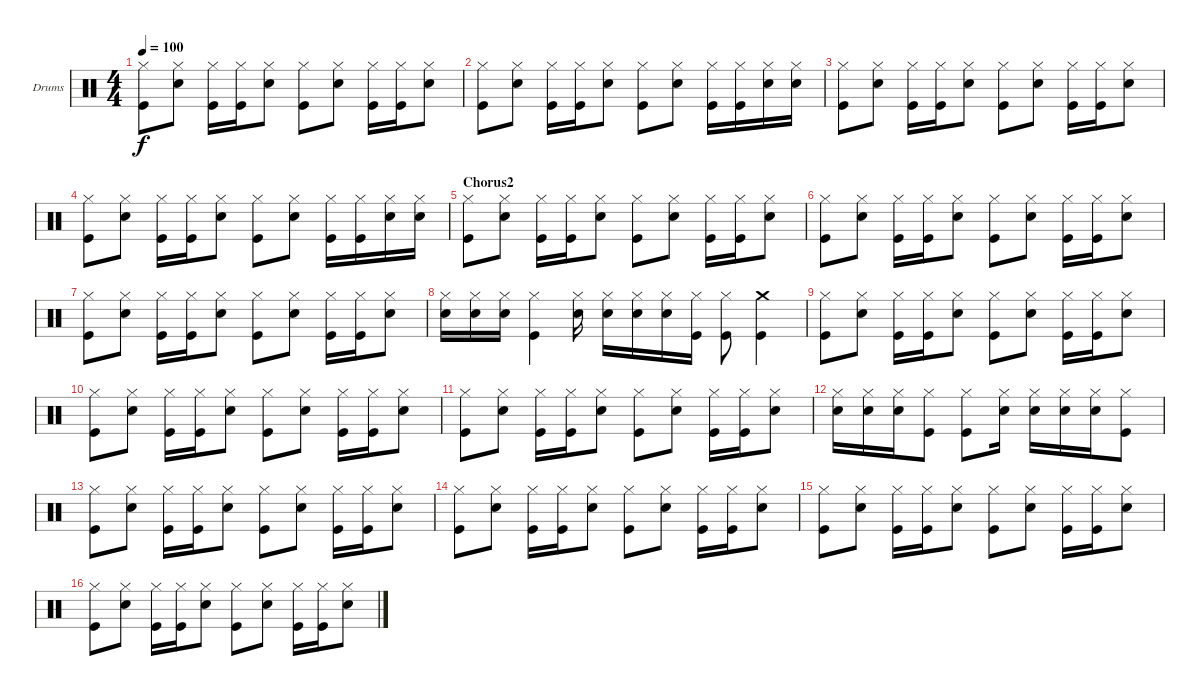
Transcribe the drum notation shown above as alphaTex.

\defaultSystemsLayout 4
\bracketExtendMode groupsimilarinstruments
\firstSystemTrackNameOrientation horizontal
\otherSystemsTrackNameOrientation horizontal
\track ("Drumkit" "Drums") {instrument percussion}
\staff {score}
\articulation defaults
\ts (4 4)
\tempo 100
\clef neutral
\scale
0.333333
\ks c
("Hi-Hat (closed)" "Kick (hit)").8{dy f} ("Hi-Hat (closed)" "Snare (hit) 2").8 ("Hi-Hat (closed)" "Kick (hit)").16 ("Hi-Hat (closed)" "Kick (hit)").16 ("Hi-Hat (closed)" "Snare (hit) 2").8 ("Hi-Hat (closed)" "Kick (hit)").8 ("Hi-Hat (closed)" "Snare (hit) 2").8 ("Hi-Hat (closed)" "Kick (hit)").16 ("Hi-Hat (closed)" "Kick (hit)").16 ("Hi-Hat (closed)" "Snare (hit) 2").8 |
\scale
0.333333 ("Hi-Hat (closed)" "Kick (hit)").8 ("Hi-Hat (closed)" "Snare (hit) 2").8 ("Hi-Hat (closed)" "Kick (hit)").16 ("Hi-Hat (closed)" "Kick (hit)").16 ("Hi-Hat (closed)" "Snare (hit) 2").8 ("Hi-Hat (closed)" "Kick (hit)").8 ("Hi-Hat (closed)" "Snare (hit) 2").8 ("Hi-Hat (closed)" "Kick (hit)").16 ("Hi-Hat (closed)" "Kick (hit)").16 ("Hi-Hat (closed)" "Snare (hit) 2").16 ("Hi-Hat (closed)" "Snare (hit) 2").16 |
\scale
0.333333 ("Hi-Hat (closed)" "Kick (hit)").8 ("Hi-Hat (closed)" "Snare (hit) 2").8 ("Hi-Hat (closed)" "Kick (hit)").16 ("Hi-Hat (closed)" "Kick (hit)").16 ("Hi-Hat (closed)" "Snare (hit) 2").8 ("Hi-Hat (closed)" "Kick (hit)").8 ("Hi-Hat (closed)" "Snare (hit) 2").8 ("Hi-Hat (closed)" "Kick (hit)").16 ("Hi-Hat (closed)" "Kick (hit)").16 ("Hi-Hat (closed)" "Snare (hit) 2").8 |
\scale
0.333333 ("Hi-Hat (closed)" "Kick (hit)").8 ("Hi-Hat (closed)" "Snare (hit) 2").8 ("Hi-Hat (closed)" "Kick (hit)").16 ("Hi-Hat (closed)" "Kick (hit)").16 ("Hi-Hat (closed)" "Snare (hit) 2").8 ("Hi-Hat (closed)" "Kick (hit)").8 ("Hi-Hat (closed)" "Snare (hit) 2").8 ("Hi-Hat (closed)" "Kick (hit)").16 ("Hi-Hat (closed)" "Kick (hit)").16 ("Hi-Hat (closed)" "Snare (hit) 2").16 ("Hi-Hat (closed)" "Snare (hit) 2").16 |
\section ("" "Chorus2")
\scale
0.333333 ("Hi-Hat (closed)" "Kick (hit)").8 ("Hi-Hat (closed)" "Snare (hit) 2").8 ("Hi-Hat (closed)" "Kick (hit)").16 ("Hi-Hat (closed)" "Kick (hit)").16 ("Hi-Hat (closed)" "Snare (hit) 2").8 ("Hi-Hat (closed)" "Kick (hit)").8 ("Hi-Hat (closed)" "Snare (hit) 2").8 ("Hi-Hat (closed)" "Kick (hit)").16 ("Hi-Hat (closed)" "Kick (hit)").16 ("Hi-Hat (closed)" "Snare (hit) 2").8 |
\scale
0.333333 ("Hi-Hat (closed)" "Kick (hit)").8 ("Hi-Hat (closed)" "Snare (hit) 2").8 ("Hi-Hat (closed)" "Kick (hit)").16 ("Hi-Hat (closed)" "Kick (hit)").16 ("Hi-Hat (closed)" "Snare (hit) 2").8 ("Hi-Hat (closed)" "Kick (hit)").8 ("Hi-Hat (closed)" "Snare (hit) 2").8 ("Hi-Hat (closed)" "Kick (hit)").16 ("Hi-Hat (closed)" "Kick (hit)").16 ("Hi-Hat (closed)" "Snare (hit) 2").8 |
\scale
0.333333 ("Hi-Hat (closed)" "Kick (hit)").8 ("Hi-Hat (closed)" "Snare (hit) 2").8 ("Hi-Hat (closed)" "Kick (hit)").16 ("Hi-Hat (closed)" "Kick (hit)").16 ("Hi-Hat (closed)" "Snare (hit) 2").8 ("Hi-Hat (closed)" "Kick (hit)").8 ("Hi-Hat (closed)" "Snare (hit) 2").8 ("Hi-Hat (closed)" "Kick (hit)").16 ("Hi-Hat (closed)" "Kick (hit)").16 ("Hi-Hat (closed)" "Snare (hit) 2").8 |
\scale
0.333333 ("Hi-Hat (closed)" "Snare (hit) 2").16 ("Hi-Hat (closed)" "Snare (hit) 2").16 ("Hi-Hat (closed)" "Snare (hit) 2").16 ("Hi-Hat (closed)" "Kick (hit)").4 ("Hi-Hat (closed)" "Snare (hit) 2").16 ("Hi-Hat (closed)" "Snare (hit) 2").16 ("Hi-Hat (closed)" "Snare (hit) 2").16 ("Hi-Hat (closed)" "Snare (hit) 2").16 ("Hi-Hat (closed)" "Kick (hit)").16 ("Hi-Hat (closed)" "Kick (hit)").8 ("Crash medium (hit)" "Kick (hit)").4 |
\scale
0.333333 ("Hi-Hat (closed)" "Kick (hit)").8 ("Hi-Hat (closed)" "Snare (hit) 2").8 ("Hi-Hat (closed)" "Kick (hit)").16 ("Hi-Hat (closed)" "Kick (hit)").16 ("Hi-Hat (closed)" "Snare (hit) 2").8 ("Hi-Hat (closed)" "Kick (hit)").8 ("Hi-Hat (closed)" "Snare (hit) 2").8 ("Hi-Hat (closed)" "Kick (hit)").16 ("Hi-Hat (closed)" "Kick (hit)").16 ("Hi-Hat (closed)" "Snare (hit) 2").8 |
\scale
0.333333 ("Hi-Hat (closed)" "Kick (hit)").8 ("Hi-Hat (closed)" "Snare (hit) 2").8 ("Hi-Hat (closed)" "Kick (hit)").16 ("Hi-Hat (closed)" "Kick (hit)").16 ("Hi-Hat (closed)" "Snare (hit) 2").8 ("Hi-Hat (closed)" "Kick (hit)").8 ("Hi-Hat (closed)" "Snare (hit) 2").8 ("Hi-Hat (closed)" "Kick (hit)").16 ("Hi-Hat (closed)" "Kick (hit)").16 ("Hi-Hat (closed)" "Snare (hit) 2").8 |
\scale
0.333333 ("Hi-Hat (closed)" "Kick (hit)").8 ("Hi-Hat (closed)" "Snare (hit) 2").8 ("Hi-Hat (closed)" "Kick (hit)").16 ("Hi-Hat (closed)" "Kick (hit)").16 ("Hi-Hat (closed)" "Snare (hit) 2").8 ("Hi-Hat (closed)" "Kick (hit)").8 ("Hi-Hat (closed)" "Snare (hit) 2").8 ("Hi-Hat (closed)" "Kick (hit)").16 ("Hi-Hat (closed)" "Kick (hit)").16 ("Hi-Hat (closed)" "Snare (hit) 2").8 |
\scale
0.333333 ("Hi-Hat (closed)" "Snare (hit) 2").16 ("Hi-Hat (closed)" "Snare (hit) 2").16 ("Hi-Hat (closed)" "Snare (hit) 2").16 ("Hi-Hat (closed)" "Kick (hit)").8 ("Hi-Hat (closed)" "Kick (hit)").8 ("Hi-Hat (closed)" "Snare (hit) 2").16 ("Hi-Hat (closed)" "Snare (hit) 2").16 ("Hi-Hat (closed)" "Snare (hit) 2").16 ("Hi-Hat (closed)" "Snare (hit) 2").16 ("Hi-Hat (closed)" "Kick (hit)").8 |
\scale
0.333333 ("Hi-Hat (closed)" "Kick (hit)").8 ("Hi-Hat (closed)" "Snare (hit) 2").8 ("Hi-Hat (closed)" "Kick (hit)").16 ("Hi-Hat (closed)" "Kick (hit)").16 ("Hi-Hat (closed)" "Snare (hit) 2").8 ("Hi-Hat (closed)" "Kick (hit)").8 ("Hi-Hat (closed)" "Snare (hit) 2").8 ("Hi-Hat (closed)" "Kick (hit)").16 ("Hi-Hat (closed)" "Kick (hit)").16 ("Hi-Hat (closed)" "Snare (hit) 2").8 |
\scale
0.333333 ("Hi-Hat (closed)" "Kick (hit)").8 ("Hi-Hat (closed)" "Snare (hit) 2").8 ("Hi-Hat (closed)" "Kick (hit)").16 ("Hi-Hat (closed)" "Kick (hit)").16 ("Hi-Hat (closed)" "Snare (hit) 2").8 ("Hi-Hat (closed)" "Kick (hit)").8 ("Hi-Hat (closed)" "Snare (hit) 2").8 ("Hi-Hat (closed)" "Kick (hit)").16 ("Hi-Hat (closed)" "Kick (hit)").16 ("Hi-Hat (closed)" "Snare (hit) 2").8 |
\scale
0.333333 ("Hi-Hat (closed)" "Kick (hit)").8 ("Hi-Hat (closed)" "Snare (hit) 2").8 ("Hi-Hat (closed)" "Kick (hit)").16 ("Hi-Hat (closed)" "Kick (hit)").16 ("Hi-Hat (closed)" "Snare (hit) 2").8 ("Hi-Hat (closed)" "Kick (hit)").8 ("Hi-Hat (closed)" "Snare (hit) 2").8 ("Hi-Hat (closed)" "Kick (hit)").16 ("Hi-Hat (closed)" "Kick (hit)").16 ("Hi-Hat (closed)" "Snare (hit) 2").8 |
\scale
0.333333 ("Hi-Hat (closed)" "Kick (hit)").8 ("Hi-Hat (closed)" "Snare (hit) 2").8 ("Hi-Hat (closed)" "Kick (hit)").16 ("Hi-Hat (closed)" "Kick (hit)").16 ("Hi-Hat (closed)" "Snare (hit) 2").8 ("Hi-Hat (closed)" "Kick (hit)").8 ("Hi-Hat (closed)" "Snare (hit) 2").8 ("Hi-Hat (closed)" "Kick (hit)").16 ("Hi-Hat (closed)" "Kick (hit)").16 ("Hi-Hat (closed)" "Snare (hit) 2").8
